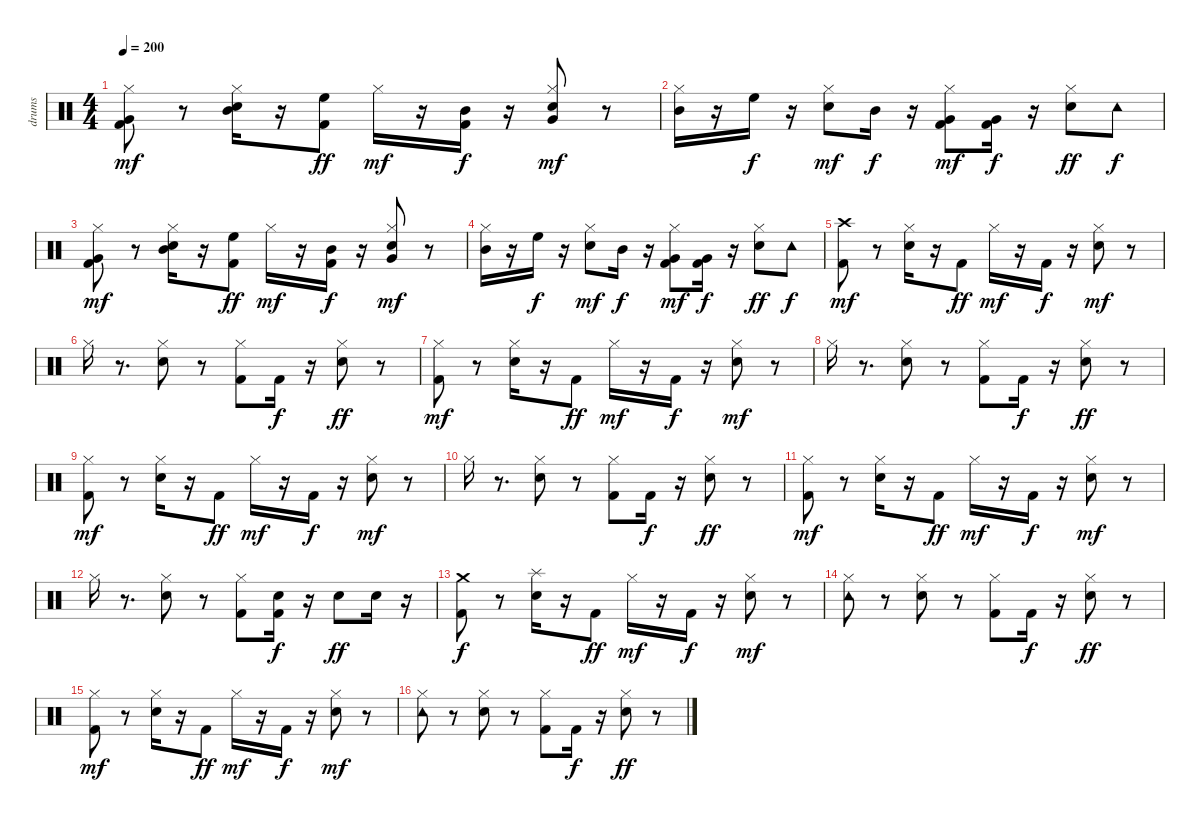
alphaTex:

\track ("drums" "drums") {instrument percussion}
\staff {score}
\articulation defaults
\ts (4 4)
\tempo 200
\clef neutral
\ks c
("Very Low Tom (hit)" "Kick (hit) 2" "Hi-Hat (closed)").8{dy mf} r.8 ("Mid Tom (hit)" "Snare (hit) 2" "Hi-Hat (closed)").16 r.16 ("High Floor Tom (hit)" "Kick (hit) 2").8{dy ff} "Hi-Hat (closed)".16{dy mf} r.16 ("Mid Tom (hit)" "Kick (hit) 2").16{dy f} r.16 ("Very Low Tom (hit)" "Snare (hit) 2" "Hi-Hat (closed)").8{dy mf} r.8 |
("Mid Tom (hit)" "Hi-Hat (closed)").16 r.16 "High Floor Tom (hit)".16{dy f} r.16 ("Snare (hit) 2" "Hi-Hat (closed)").8{dy mf} "Mid Tom (hit)".16{dy f} r.16 ("Very Low Tom (hit)" "Kick (hit) 2" "Hi-Hat (closed)").8{dy mf} ("Very Low Tom (hit)" "Kick (hit) 2").16{dy f} r.16 ("Snare (hit) 2" "Hi-Hat (closed)").8{dy ff} "Tambourine (hit)".8{dy f} |
("Very Low Tom (hit)" "Kick (hit) 2" "Hi-Hat (closed)").8{dy mf} r.8 ("Mid Tom (hit)" "Snare (hit) 2" "Hi-Hat (closed)").16 r.16 ("High Floor Tom (hit)" "Kick (hit) 2").8{dy ff} "Hi-Hat (closed)".16{dy mf} r.16 ("Mid Tom (hit)" "Kick (hit) 2").16{dy f} r.16 ("Very Low Tom (hit)" "Snare (hit) 2" "Hi-Hat (closed)").8{dy mf} r.8 |
("Mid Tom (hit)" "Hi-Hat (closed)").16 r.16 "High Floor Tom (hit)".16{dy f} r.16 ("Snare (hit) 2" "Hi-Hat (closed)").8{dy mf} "Mid Tom (hit)".16{dy f} r.16 ("Very Low Tom (hit)" "Kick (hit) 2" "Hi-Hat (closed)").8{dy mf} ("Very Low Tom (hit)" "Kick (hit) 2").16{dy f} r.16 ("Snare (hit) 2" "Hi-Hat (closed)").8{dy ff} "Tambourine (hit)".8{dy f} |
("Crash high (hit)" "Kick (hit) 2").8{dy mf} r.8 ("Snare (hit) 2" "Hi-Hat (closed)").16 r.16 "Kick (hit) 2".8{dy ff} "Hi-Hat (closed)".16{dy mf} r.16 "Kick (hit) 2".16{dy f} r.16 ("Snare (hit) 2" "Hi-Hat (closed)").8{dy mf} r.8 |
"Hi-Hat (closed)".16 r.8{d} ("Snare (hit) 2" "Hi-Hat (closed)").8 r.8 ("Kick (hit) 2" "Hi-Hat (closed)").8 "Kick (hit) 2".16{dy f} r.16 ("Snare (hit) 2" "Hi-Hat (closed)").8{dy ff} r.8 |
("Kick (hit) 2" "Hi-Hat (closed)").8{dy mf} r.8 ("Snare (hit) 2" "Hi-Hat (closed)").16 r.16 "Kick (hit) 2".8{dy ff} "Hi-Hat (closed)".16{dy mf} r.16 "Kick (hit) 2".16{dy f} r.16 ("Snare (hit) 2" "Hi-Hat (closed)").8{dy mf} r.8 |
"Hi-Hat (closed)".16 r.8{d} ("Snare (hit) 2" "Hi-Hat (closed)").8 r.8 ("Kick (hit) 2" "Hi-Hat (closed)").8 "Kick (hit) 2".16{dy f} r.16 ("Snare (hit) 2" "Hi-Hat (closed)").8{dy ff} r.8 |
("Kick (hit) 2" "Hi-Hat (closed)").8{dy mf} r.8 ("Snare (hit) 2" "Hi-Hat (closed)").16 r.16 "Kick (hit) 2".8{dy ff} "Hi-Hat (closed)".16{dy mf} r.16 "Kick (hit) 2".16{dy f} r.16 ("Snare (hit) 2" "Hi-Hat (closed)").8{dy mf} r.8 |
"Hi-Hat (closed)".16 r.8{d} ("Snare (hit) 2" "Hi-Hat (closed)").8 r.8 ("Kick (hit) 2" "Hi-Hat (closed)").8 "Kick (hit) 2".16{dy f} r.16 ("Snare (hit) 2" "Hi-Hat (closed)").8{dy ff} r.8 |
("Hi-Hat (closed)" "Kick (hit) 2").8{dy mf} r.8 ("Snare (hit) 2" "Hi-Hat (closed)").16 r.16 "Kick (hit) 2".8{dy ff} "Hi-Hat (closed)".16{dy mf} r.16 "Kick (hit) 2".16{dy f} r.16 ("Snare (hit) 2" "Hi-Hat (closed)").8{dy mf} r.8 |
"Hi-Hat (closed)".16 r.8{d} ("Snare (hit) 2" "Hi-Hat (closed)").8 r.8 ("Kick (hit) 2" "Hi-Hat (closed)").8 ("Snare (hit) 2" "Kick (hit) 2").16{dy f} r.16 "Snare (hit) 2".8{dy ff} "Snare (hit) 2".16 r.16 |
("Crash medium (hit)" "Kick (hit) 2").8{dy f} r.8 ("Splash (hit)" "Snare (hit) 2").16 r.16 "Kick (hit) 2".8{dy ff} "Hi-Hat (closed)".16{dy mf} r.16 "Kick (hit) 2".16{dy f} r.16 ("Snare (hit) 2" "Hi-Hat (closed)").8{dy mf} r.8 |
("Tambourine (hit)" "Hi-Hat (closed)").8 r.8 ("Snare (hit) 2" "Hi-Hat (closed)").8 r.8 ("Kick (hit) 2" "Hi-Hat (closed)").8 "Kick (hit) 2".16{dy f} r.16 ("Snare (hit) 2" "Hi-Hat (closed)").8{dy ff} r.8 |
("Kick (hit) 2" "Hi-Hat (closed)").8{dy mf} r.8 ("Snare (hit) 2" "Hi-Hat (closed)").16 r.16 "Kick (hit) 2".8{dy ff} "Hi-Hat (closed)".16{dy mf} r.16 "Kick (hit) 2".16{dy f} r.16 ("Snare (hit) 2" "Hi-Hat (closed)").8{dy mf} r.8 |
("Tambourine (hit)" "Hi-Hat (closed)").8 r.8 ("Snare (hit) 2" "Hi-Hat (closed)").8 r.8 ("Kick (hit) 2" "Hi-Hat (closed)").8 "Kick (hit) 2".16{dy f} r.16 ("Snare (hit) 2" "Hi-Hat (closed)").8{dy ff} r.8
